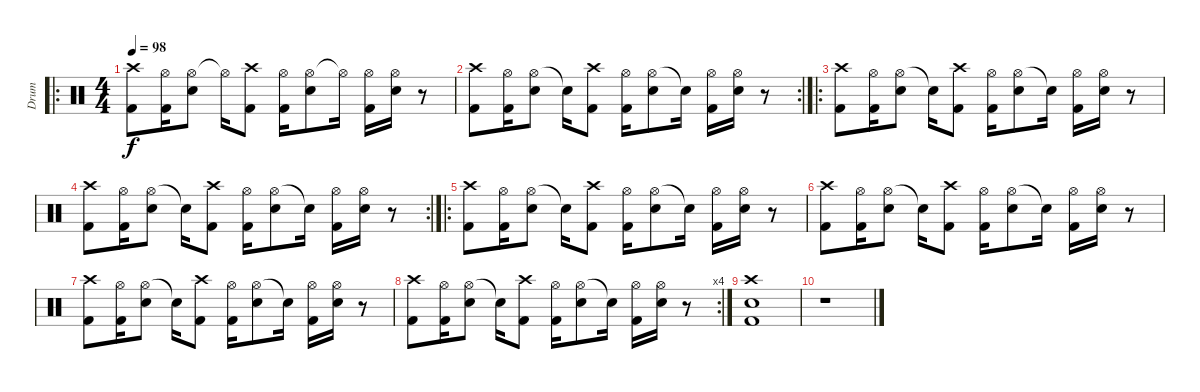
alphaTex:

\track ("Drum" "Drum") {instrument percussion}
\staff {score}
\articulation defaults
\ro
\ts (4 4)
\tempo 98
\clef neutral
\ks c
("Crash high (hit)" "Kick (hit) 2").8{dy f volume 16} ("Hi-Hat (open)" "Kick (hit) 2").16 ("Hi-Hat (open)" "Snare (hit) 2").8 "Hi-Hat (open)"{t}.16 ("Crash high (hit)" "Kick (hit) 2").8 ("Hi-Hat (open)" "Kick (hit) 2").16 ("Hi-Hat (open)" "Snare (hit) 2").8 "Hi-Hat (open)"{t}.16 ("Hi-Hat (open)" "Kick (hit) 2").16 ("Hi-Hat (open)" "Snare (hit) 2").16 r.8 |
\rc 2
("Crash high (hit)" "Kick (hit) 2").8 ("Hi-Hat (open)" "Kick (hit) 2").16 ("Hi-Hat (open)" "Snare (hit) 2").8 "Snare (hit)"{t}.16 ("Crash high (hit)" "Kick (hit) 2").8 ("Hi-Hat (open)" "Kick (hit) 2").16 ("Hi-Hat (open)" "Snare (hit) 2").8 "Snare (hit)"{t}.16 ("Hi-Hat (open)" "Kick (hit) 2").16 ("Hi-Hat (open)" "Snare (hit) 2").16 r.8 |
\ro
("Crash high (hit)" "Kick (hit) 2").8 ("Hi-Hat (open)" "Kick (hit) 2").16 ("Hi-Hat (open)" "Snare (hit) 2").8 "Snare (hit)"{t}.16 ("Crash high (hit)" "Kick (hit) 2").8 ("Hi-Hat (open)" "Kick (hit) 2").16 ("Hi-Hat (open)" "Snare (hit) 2").8 "Snare (hit)"{t}.16 ("Hi-Hat (open)" "Kick (hit) 2").16 ("Hi-Hat (open)" "Snare (hit) 2").16 r.8 |
\rc 2
("Crash high (hit)" "Kick (hit) 2").8 ("Hi-Hat (open)" "Kick (hit) 2").16 ("Hi-Hat (open)" "Snare (hit) 2").8 "Snare (hit)"{t}.16 ("Crash high (hit)" "Kick (hit) 2").8 ("Hi-Hat (open)" "Kick (hit) 2").16 ("Hi-Hat (open)" "Snare (hit) 2").8 "Snare (hit)"{t}.16 ("Hi-Hat (open)" "Kick (hit) 2").16 ("Hi-Hat (open)" "Snare (hit) 2").16 r.8 |
\ro
("Crash high (hit)" "Kick (hit) 2").8 ("Hi-Hat (open)" "Kick (hit) 2").16 ("Hi-Hat (open)" "Snare (hit) 2").8 "Snare (hit)"{t}.16 ("Crash high (hit)" "Kick (hit) 2").8 ("Hi-Hat (open)" "Kick (hit) 2").16 ("Hi-Hat (open)" "Snare (hit) 2").8 "Snare (hit)"{t}.16 ("Hi-Hat (open)" "Kick (hit) 2").16 ("Hi-Hat (open)" "Snare (hit) 2").16 r.8 |
("Crash high (hit)" "Kick (hit) 2").8 ("Hi-Hat (open)" "Kick (hit) 2").16 ("Hi-Hat (open)" "Snare (hit) 2").8 "Snare (hit)"{t}.16 ("Crash high (hit)" "Kick (hit) 2").8 ("Hi-Hat (open)" "Kick (hit) 2").16 ("Hi-Hat (open)" "Snare (hit) 2").8 "Snare (hit)"{t}.16 ("Hi-Hat (open)" "Kick (hit) 2").16 ("Hi-Hat (open)" "Snare (hit) 2").16 r.8 |
("Crash high (hit)" "Kick (hit) 2").8 ("Hi-Hat (open)" "Kick (hit) 2").16 ("Hi-Hat (open)" "Snare (hit) 2").8 "Snare (hit)"{t}.16 ("Crash high (hit)" "Kick (hit) 2").8 ("Hi-Hat (open)" "Kick (hit) 2").16 ("Hi-Hat (open)" "Snare (hit) 2").8 "Snare (hit)"{t}.16 ("Hi-Hat (open)" "Kick (hit) 2").16 ("Hi-Hat (open)" "Snare (hit) 2").16 r.8 |
\rc 4
("Crash high (hit)" "Kick (hit) 2").8 ("Hi-Hat (open)" "Kick (hit) 2").16 ("Hi-Hat (open)" "Snare (hit) 2").8 "Snare (hit)"{t}.16 ("Crash high (hit)" "Kick (hit) 2").8 ("Hi-Hat (open)" "Kick (hit) 2").16 ("Hi-Hat (open)" "Snare (hit) 2").8 "Snare (hit)"{t}.16 ("Hi-Hat (open)" "Kick (hit) 2").16 ("Hi-Hat (open)" "Snare (hit) 2").16 r.8 |
("Crash high (hit)" "Snare (hit) 2" "Kick (hit) 2").1 |
r.1
